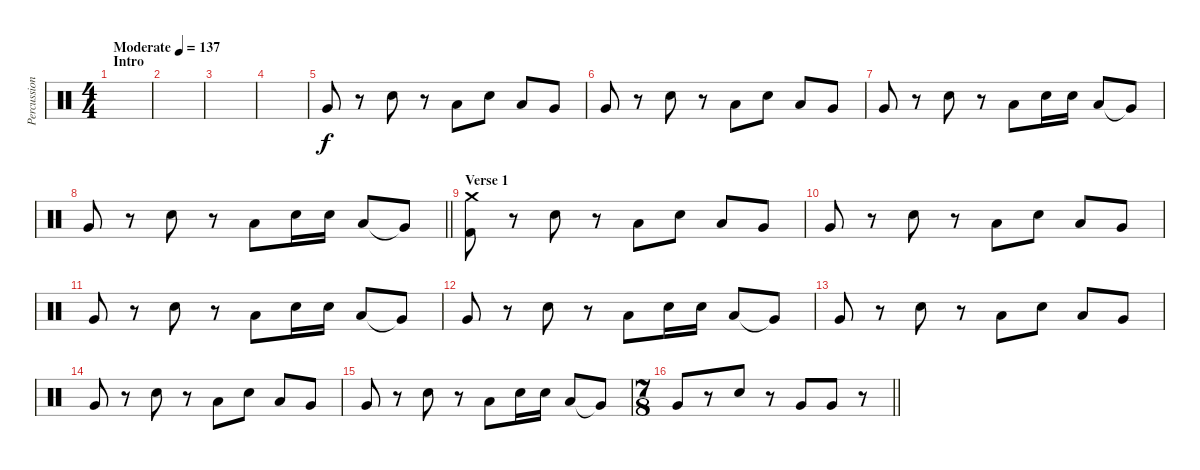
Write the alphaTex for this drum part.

\track ("Percussion" "Percussion") {instrument percussion}
\staff {score}
\articulation defaults
\ts (4 4)
\section ("" "Intro")
\tempo (137 "Moderate")
\clef neutral
\ks c
|
|
|
|
"Very Low Tom (hit)".8 r.8 "Electric Snare (hit)".8 r.8 "Low Tom (hit)".8 "Electric Snare (hit)".8 "Low Tom (hit)".8 "Very Low Tom (hit)".8 |
"Very Low Tom (hit)".8 r.8 "Electric Snare (hit)".8 r.8 "Low Tom (hit)".8 "Electric Snare (hit)".8 "Low Tom (hit)".8 "Very Low Tom (hit)".8 |
"Very Low Tom (hit)".8 r.8 "Electric Snare (hit)".8 r.8 "Low Tom (hit)".8 "Electric Snare (hit)".16 "Electric Snare (hit)".16 "Low Tom (hit)".8 "Very Low Tom (hit)"{t}.8 |
\barLineRight lightlight "Very Low Tom (hit)".8
r.8 "Electric Snare (hit)".8 r.8 "Low Tom (hit)".8 "Electric Snare (hit)".16 "Electric Snare (hit)".16 "Low Tom (hit)".8 "Very Low Tom (hit)"{t}.8 |
\section ("" "Verse 1")
("Crash medium (hit)" "Kick (hit) 2").8 r.8 "Electric Snare (hit)".8 r.8 "Low Tom (hit)".8 "Electric Snare (hit)".8 "Low Tom (hit)".8 "Very Low Tom (hit)".8 |
"Very Low Tom (hit)".8 r.8 "Electric Snare (hit)".8 r.8 "Low Tom (hit)".8 "Electric Snare (hit)".8 "Low Tom (hit)".8 "Very Low Tom (hit)".8 |
"Very Low Tom (hit)".8 r.8 "Electric Snare (hit)".8 r.8 "Low Tom (hit)".8 "Electric Snare (hit)".16 "Electric Snare (hit)".16 "Low Tom (hit)".8 "Very Low Tom (hit)"{t}.8 |
"Very Low Tom (hit)".8 r.8 "Electric Snare (hit)".8 r.8 "Low Tom (hit)".8 "Electric Snare (hit)".16 "Electric Snare (hit)".16 "Low Tom (hit)".8 "Very Low Tom (hit)"{t}.8 |
"Very Low Tom (hit)".8 r.8 "Electric Snare (hit)".8 r.8 "Low Tom (hit)".8 "Electric Snare (hit)".8 "Low Tom (hit)".8 "Very Low Tom (hit)".8 |
"Very Low Tom (hit)".8 r.8 "Electric Snare (hit)".8 r.8 "Low Tom (hit)".8 "Electric Snare (hit)".8 "Low Tom (hit)".8 "Very Low Tom (hit)".8 |
"Very Low Tom (hit)".8 r.8 "Electric Snare (hit)".8 r.8 "Low Tom (hit)".8 "Electric Snare (hit)".16 "Electric Snare (hit)".16 "Low Tom (hit)".8 "Very Low Tom (hit)"{t}.8 |
\ts (7 8)
\barLineRight lightlight "Very Low Tom (hit)".8
r.8 "Electric Snare (hit)".8 r.8 "Very Low Tom (hit)".8 "Very Low Tom (hit)".8 r.8
